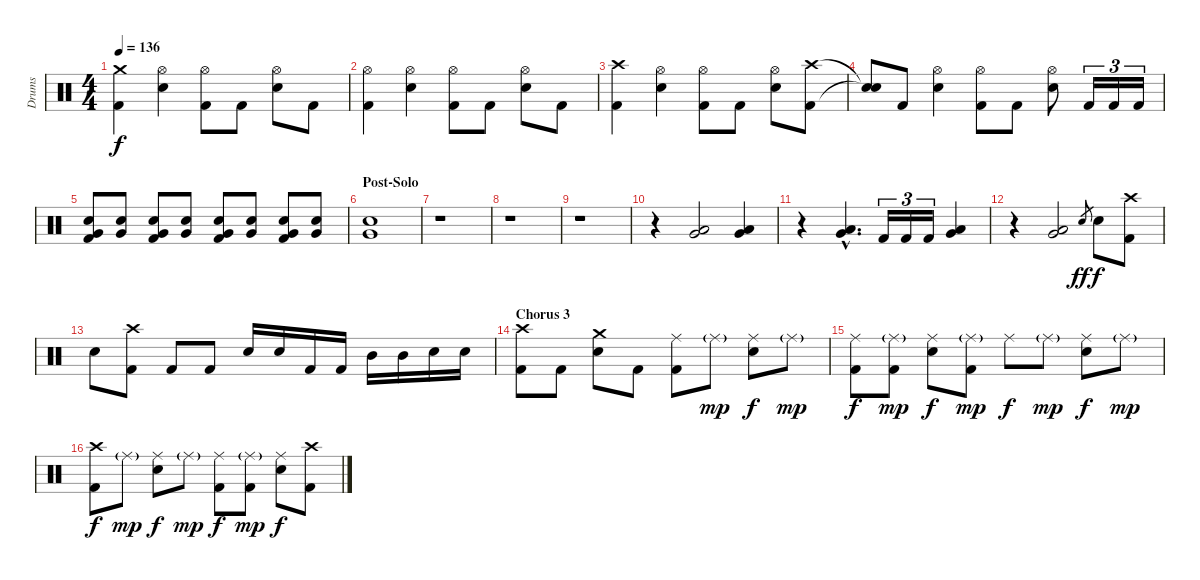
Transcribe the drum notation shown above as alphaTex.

\track ("Drums" "Drums") {instrument percussion}
\staff {score}
\articulation defaults
\ts (4 4)
\tempo 136
\clef neutral
\ks c
("Crash medium (hit)" "Kick (hit) 2").4{dy f} ("Hi-Hat (open)" "Snare (hit) 2").4 ("Hi-Hat (open)" "Kick (hit) 2").8 "Kick (hit) 2".8 ("Hi-Hat (open)" "Snare (hit) 2").8 "Kick (hit) 2".8 |
("Hi-Hat (open)" "Kick (hit) 2").4 ("Hi-Hat (open)" "Snare (hit) 2").4 ("Hi-Hat (open)" "Kick (hit) 2").8 "Kick (hit) 2".8 ("Hi-Hat (open)" "Snare (hit) 2").8 "Kick (hit) 2".8 |
("Crash high (hit)" "Kick (hit) 2").4 ("Hi-Hat (open)" "Snare (hit) 2").4 ("Hi-Hat (open)" "Kick (hit) 2").8 "Kick (hit) 2".8 ("Hi-Hat (open)" "Snare (hit) 2").8 ("Crash high (hit)" "Kick (hit) 2").8 |
("Snare (hit)"{t} "Snare (hit)"{t}).8 "Kick (hit) 2".8 ("Hi-Hat (open)" "Snare (hit) 2").4 ("Hi-Hat (open)" "Kick (hit) 2").8 "Kick (hit) 2".8 ("Hi-Hat (open)" "Snare (hit) 2").8 "Kick (hit) 2".16{tu (3 2)} "Kick (hit) 2".16{tu (3 2)} "Kick (hit) 2".16{tu (3 2)} |
("Very Low Tom (hit)" "Snare (hit) 2" "Kick (hit) 2").8 ("Very Low Tom (hit)" "Snare (hit) 2").8 ("Very Low Tom (hit)" "Snare (hit) 2" "Kick (hit) 2").8 ("Very Low Tom (hit)" "Snare (hit) 2").8 ("Very Low Tom (hit)" "Snare (hit) 2" "Kick (hit) 2").8 ("Very Low Tom (hit)" "Snare (hit) 2").8 ("Very Low Tom (hit)" "Snare (hit) 2" "Kick (hit) 2").8 ("Very Low Tom (hit)" "Snare (hit) 2").8 |
\section ("" "Post-Solo")
("Very Low Tom (hit)" "Snare (hit) 2").1 |
r.1 |
r.1 |
r.1 |
r.4 ("Very Low Tom (hit)" "Low Floor Tom (hit)").2 ("Very Low Tom (hit)" "Low Floor Tom (hit)").4 |
r.4 ("Very Low Tom (hit)"{hac} "Low Floor Tom (hit)"{hac}).4{d} "Kick (hit) 2".16{tu (3 2)} "Kick (hit) 2".16{tu (3 2)} "Kick (hit) 2".16{tu (3 2)} ("Very Low Tom (hit)" "Low Floor Tom (hit)").4 |
r.4 ("Very Low Tom (hit)" "Low Floor Tom (hit)").2 "Snare (hit) 2".8{gr dy ff} "Snare (hit) 2".8{dy f} ("Crash high (hit)" "Kick (hit) 2").8 |
"Snare (hit)"{x}.8{volume 0} ("Crash high (hit)" "Kick (hit) 2").8{volume 14} "Kick (hit) 2"{x}.8{volume 0} "Kick (hit) 2".8{volume 14} "Snare (hit) 2".16 "Snare (hit) 2".16 "Kick (hit) 2".16 "Kick (hit) 2".16 "Mid Tom (hit)".16 "Mid Tom (hit)".16 "Snare (hit) 2".16 "Snare (hit) 2".16 |
\section ("" "Chorus 3")
("Crash high (hit)" "Kick (hit) 2").8 "Kick (hit) 2".8 ("Crash medium (hit)" "Snare (hit) 2").8 "Kick (hit) 2".8 ("Ride (middle)" "Kick (hit) 2").8 "Ride (middle)"{g}.8{dy mp} ("Ride (middle)" "Snare (hit) 2").8{dy f} "Ride (middle)"{g}.8{dy mp} |
("Ride (middle)" "Kick (hit) 2").8{dy f} ("Ride (middle)"{g} "Kick (hit) 2").8{dy mp} ("Ride (middle)" "Snare (hit) 2").8{dy f} ("Ride (middle)"{g} "Kick (hit) 2").8{dy mp} "Ride (middle)".8{dy f} "Ride (middle)"{g}.8{dy mp} ("Ride (middle)" "Snare (hit) 2").8{dy f} "Ride (middle)"{g}.8{dy mp} |
("Crash high (hit)" "Kick (hit) 2").8{dy f} "Ride (middle)"{g}.8{dy mp} ("Ride (middle)" "Snare (hit) 2").8{dy f} "Ride (middle)"{g}.8{dy mp} ("Ride (middle)" "Kick (hit) 2").8{dy f} ("Ride (middle)"{g} "Kick (hit) 2").8{dy mp} ("Ride (middle)" "Snare (hit) 2").8{dy f} ("Crash high (hit)" "Kick (hit) 2").8
